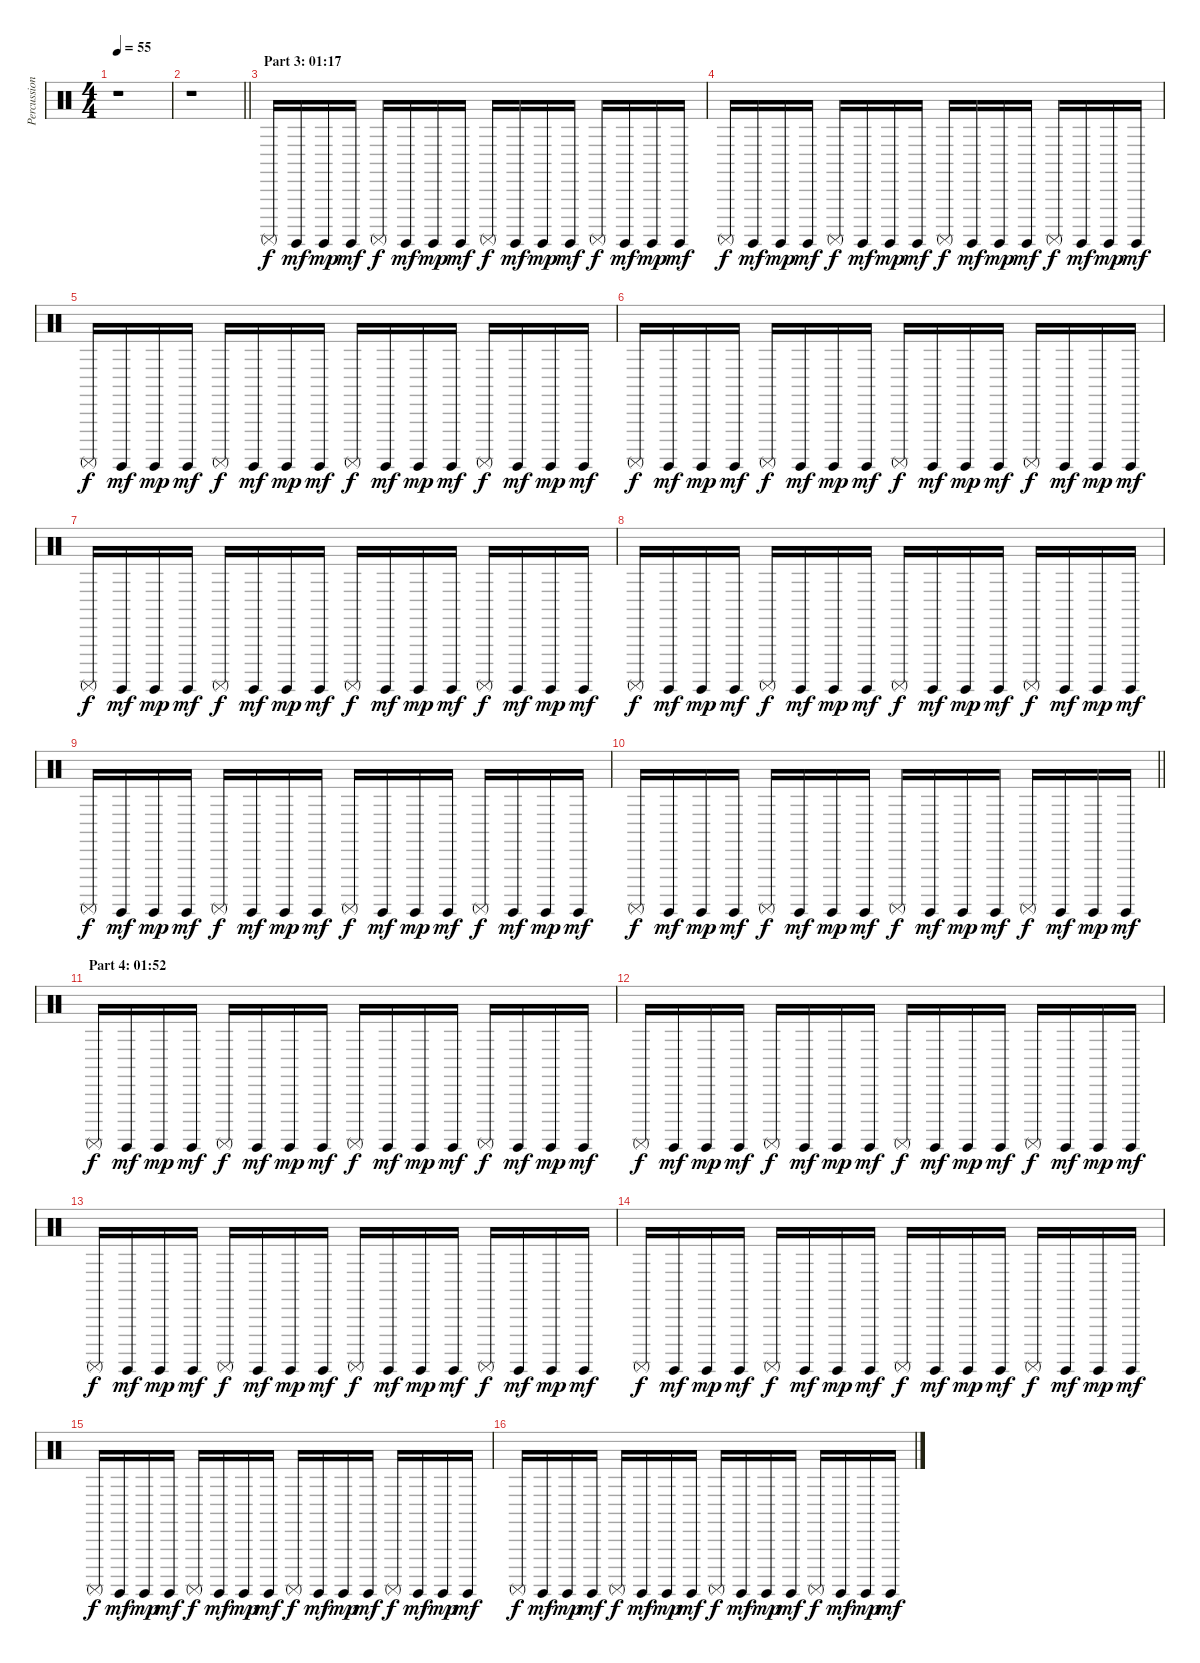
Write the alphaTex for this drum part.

\track ("Percussion" "Percussion") {instrument percussion}
\staff {score}
\articulation defaults
\ts (4 4)
\tempo 55
\clef neutral
\ks c
r.1{dy f} |
\barLineRight lightlight
r.1 |
\section ("" "Part 3: 01:17")
"Surdo (mute)".16 "Surdo (hit)".16{dy mf} "Surdo (hit)".16{dy mp} "Surdo (hit)".16{dy mf} "Surdo (mute)".16{dy f} "Surdo (hit)".16{dy mf} "Surdo (hit)".16{dy mp} "Surdo (hit)".16{dy mf} "Surdo (mute)".16{dy f} "Surdo (hit)".16{dy mf} "Surdo (hit)".16{dy mp} "Surdo (hit)".16{dy mf} "Surdo (mute)".16{dy f} "Surdo (hit)".16{dy mf} "Surdo (hit)".16{dy mp} "Surdo (hit)".16{dy mf} |
"Surdo (mute)".16{dy f} "Surdo (hit)".16{dy mf} "Surdo (hit)".16{dy mp} "Surdo (hit)".16{dy mf} "Surdo (mute)".16{dy f} "Surdo (hit)".16{dy mf} "Surdo (hit)".16{dy mp} "Surdo (hit)".16{dy mf} "Surdo (mute)".16{dy f} "Surdo (hit)".16{dy mf} "Surdo (hit)".16{dy mp} "Surdo (hit)".16{dy mf} "Surdo (mute)".16{dy f} "Surdo (hit)".16{dy mf} "Surdo (hit)".16{dy mp} "Surdo (hit)".16{dy mf} |
"Surdo (mute)".16{dy f} "Surdo (hit)".16{dy mf} "Surdo (hit)".16{dy mp} "Surdo (hit)".16{dy mf} "Surdo (mute)".16{dy f} "Surdo (hit)".16{dy mf} "Surdo (hit)".16{dy mp} "Surdo (hit)".16{dy mf} "Surdo (mute)".16{dy f} "Surdo (hit)".16{dy mf} "Surdo (hit)".16{dy mp} "Surdo (hit)".16{dy mf} "Surdo (mute)".16{dy f} "Surdo (hit)".16{dy mf} "Surdo (hit)".16{dy mp} "Surdo (hit)".16{dy mf} |
"Surdo (mute)".16{dy f} "Surdo (hit)".16{dy mf} "Surdo (hit)".16{dy mp} "Surdo (hit)".16{dy mf} "Surdo (mute)".16{dy f} "Surdo (hit)".16{dy mf} "Surdo (hit)".16{dy mp} "Surdo (hit)".16{dy mf} "Surdo (mute)".16{dy f} "Surdo (hit)".16{dy mf} "Surdo (hit)".16{dy mp} "Surdo (hit)".16{dy mf} "Surdo (mute)".16{dy f} "Surdo (hit)".16{dy mf} "Surdo (hit)".16{dy mp} "Surdo (hit)".16{dy mf} |
"Surdo (mute)".16{dy f} "Surdo (hit)".16{dy mf} "Surdo (hit)".16{dy mp} "Surdo (hit)".16{dy mf} "Surdo (mute)".16{dy f} "Surdo (hit)".16{dy mf} "Surdo (hit)".16{dy mp} "Surdo (hit)".16{dy mf} "Surdo (mute)".16{dy f} "Surdo (hit)".16{dy mf} "Surdo (hit)".16{dy mp} "Surdo (hit)".16{dy mf} "Surdo (mute)".16{dy f} "Surdo (hit)".16{dy mf} "Surdo (hit)".16{dy mp} "Surdo (hit)".16{dy mf} |
"Surdo (mute)".16{dy f} "Surdo (hit)".16{dy mf} "Surdo (hit)".16{dy mp} "Surdo (hit)".16{dy mf} "Surdo (mute)".16{dy f} "Surdo (hit)".16{dy mf} "Surdo (hit)".16{dy mp} "Surdo (hit)".16{dy mf} "Surdo (mute)".16{dy f} "Surdo (hit)".16{dy mf} "Surdo (hit)".16{dy mp} "Surdo (hit)".16{dy mf} "Surdo (mute)".16{dy f} "Surdo (hit)".16{dy mf} "Surdo (hit)".16{dy mp} "Surdo (hit)".16{dy mf} |
"Surdo (mute)".16{dy f} "Surdo (hit)".16{dy mf} "Surdo (hit)".16{dy mp} "Surdo (hit)".16{dy mf} "Surdo (mute)".16{dy f} "Surdo (hit)".16{dy mf} "Surdo (hit)".16{dy mp} "Surdo (hit)".16{dy mf} "Surdo (mute)".16{dy f} "Surdo (hit)".16{dy mf} "Surdo (hit)".16{dy mp} "Surdo (hit)".16{dy mf} "Surdo (mute)".16{dy f} "Surdo (hit)".16{dy mf} "Surdo (hit)".16{dy mp} "Surdo (hit)".16{dy mf} |
\barLineRight lightlight "Surdo (mute)".16{dy f} "Surdo (hit)".16{dy mf} "Surdo (hit)".16{dy mp} "Surdo (hit)".16{dy mf} "Surdo (mute)".16{dy f} "Surdo (hit)".16{dy mf} "Surdo (hit)".16{dy mp} "Surdo (hit)".16{dy mf} "Surdo (mute)".16{dy f} "Surdo (hit)".16{dy mf} "Surdo (hit)".16{dy mp} "Surdo (hit)".16{dy mf} "Surdo (mute)".16{dy f} "Surdo (hit)".16{dy mf} "Surdo (hit)".16{dy mp} "Surdo (hit)".16{dy mf}
|
\section ("" "Part 4: 01:52")
"Surdo (mute)".16{dy f} "Surdo (hit)".16{dy mf} "Surdo (hit)".16{dy mp} "Surdo (hit)".16{dy mf} "Surdo (mute)".16{dy f} "Surdo (hit)".16{dy mf} "Surdo (hit)".16{dy mp} "Surdo (hit)".16{dy mf} "Surdo (mute)".16{dy f} "Surdo (hit)".16{dy mf} "Surdo (hit)".16{dy mp} "Surdo (hit)".16{dy mf} "Surdo (mute)".16{dy f} "Surdo (hit)".16{dy mf} "Surdo (hit)".16{dy mp} "Surdo (hit)".16{dy mf} |
"Surdo (mute)".16{dy f} "Surdo (hit)".16{dy mf} "Surdo (hit)".16{dy mp} "Surdo (hit)".16{dy mf} "Surdo (mute)".16{dy f} "Surdo (hit)".16{dy mf} "Surdo (hit)".16{dy mp} "Surdo (hit)".16{dy mf} "Surdo (mute)".16{dy f} "Surdo (hit)".16{dy mf} "Surdo (hit)".16{dy mp} "Surdo (hit)".16{dy mf} "Surdo (mute)".16{dy f} "Surdo (hit)".16{dy mf} "Surdo (hit)".16{dy mp} "Surdo (hit)".16{dy mf} |
"Surdo (mute)".16{dy f} "Surdo (hit)".16{dy mf} "Surdo (hit)".16{dy mp} "Surdo (hit)".16{dy mf} "Surdo (mute)".16{dy f} "Surdo (hit)".16{dy mf} "Surdo (hit)".16{dy mp} "Surdo (hit)".16{dy mf} "Surdo (mute)".16{dy f} "Surdo (hit)".16{dy mf} "Surdo (hit)".16{dy mp} "Surdo (hit)".16{dy mf} "Surdo (mute)".16{dy f} "Surdo (hit)".16{dy mf} "Surdo (hit)".16{dy mp} "Surdo (hit)".16{dy mf} |
"Surdo (mute)".16{dy f} "Surdo (hit)".16{dy mf} "Surdo (hit)".16{dy mp} "Surdo (hit)".16{dy mf} "Surdo (mute)".16{dy f} "Surdo (hit)".16{dy mf} "Surdo (hit)".16{dy mp} "Surdo (hit)".16{dy mf} "Surdo (mute)".16{dy f} "Surdo (hit)".16{dy mf} "Surdo (hit)".16{dy mp} "Surdo (hit)".16{dy mf} "Surdo (mute)".16{dy f} "Surdo (hit)".16{dy mf} "Surdo (hit)".16{dy mp} "Surdo (hit)".16{dy mf} |
"Surdo (mute)".16{dy f} "Surdo (hit)".16{dy mf} "Surdo (hit)".16{dy mp} "Surdo (hit)".16{dy mf} "Surdo (mute)".16{dy f} "Surdo (hit)".16{dy mf} "Surdo (hit)".16{dy mp} "Surdo (hit)".16{dy mf} "Surdo (mute)".16{dy f} "Surdo (hit)".16{dy mf} "Surdo (hit)".16{dy mp} "Surdo (hit)".16{dy mf} "Surdo (mute)".16{dy f} "Surdo (hit)".16{dy mf} "Surdo (hit)".16{dy mp} "Surdo (hit)".16{dy mf} |
"Surdo (mute)".16{dy f} "Surdo (hit)".16{dy mf} "Surdo (hit)".16{dy mp} "Surdo (hit)".16{dy mf} "Surdo (mute)".16{dy f} "Surdo (hit)".16{dy mf} "Surdo (hit)".16{dy mp} "Surdo (hit)".16{dy mf} "Surdo (mute)".16{dy f} "Surdo (hit)".16{dy mf} "Surdo (hit)".16{dy mp} "Surdo (hit)".16{dy mf} "Surdo (mute)".16{dy f} "Surdo (hit)".16{dy mf} "Surdo (hit)".16{dy mp} "Surdo (hit)".16{dy mf}
